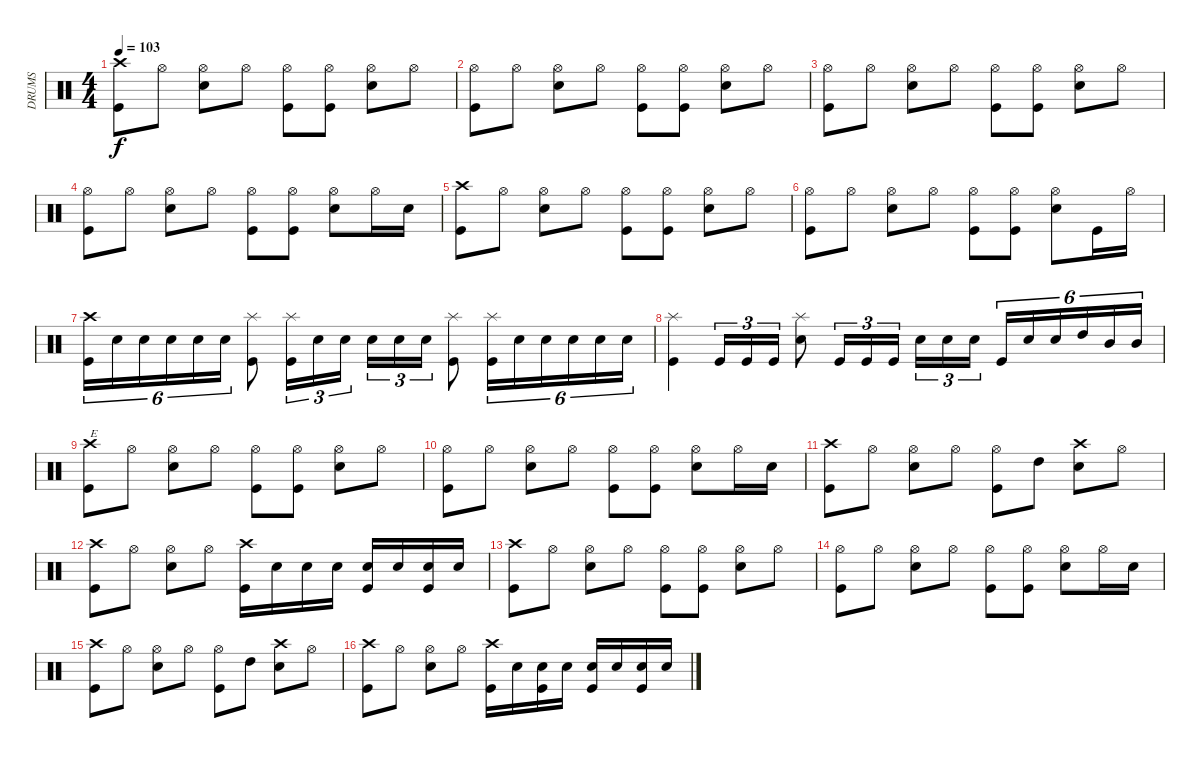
\track ("DRUMS" "DRUMS") {instrument percussion}
\staff {score}
\articulation defaults
\ts (4 4)
\tempo 103
\clef neutral
\ks c
("Crash high (hit)" "Kick (hit)").8{dy f} "Hi-Hat (open)".8 ("Hi-Hat (open)" "Electric Snare (hit)").8 "Hi-Hat (open)".8 ("Hi-Hat (open)" "Kick (hit)").8 ("Hi-Hat (open)" "Kick (hit)").8 ("Hi-Hat (open)" "Electric Snare (hit)").8 "Hi-Hat (open)".8 |
("Hi-Hat (open)" "Kick (hit)").8 "Hi-Hat (open)".8 ("Hi-Hat (open)" "Electric Snare (hit)").8 "Hi-Hat (open)".8 ("Hi-Hat (open)" "Kick (hit)").8 ("Hi-Hat (open)" "Kick (hit)").8 ("Hi-Hat (open)" "Electric Snare (hit)").8 "Hi-Hat (open)".8 |
("Hi-Hat (open)" "Kick (hit)").8 "Hi-Hat (open)".8 ("Hi-Hat (open)" "Electric Snare (hit)").8 "Hi-Hat (open)".8 ("Hi-Hat (open)" "Kick (hit)").8 ("Hi-Hat (open)" "Kick (hit)").8 ("Hi-Hat (open)" "Electric Snare (hit)").8 "Hi-Hat (open)".8 |
("Hi-Hat (open)" "Kick (hit)").8 "Hi-Hat (open)".8 ("Hi-Hat (open)" "Electric Snare (hit)").8 "Hi-Hat (open)".8 ("Hi-Hat (open)" "Kick (hit)").8 ("Hi-Hat (open)" "Kick (hit)").8 ("Hi-Hat (open)" "Electric Snare (hit)").8 "Hi-Hat (open)".16 "Electric Snare (hit)".16 |
("Crash high (hit)" "Kick (hit)").8 "Hi-Hat (open)".8 ("Hi-Hat (open)" "Electric Snare (hit)").8 "Hi-Hat (open)".8 ("Hi-Hat (open)" "Kick (hit)").8 ("Hi-Hat (open)" "Kick (hit)").8 ("Hi-Hat (open)" "Electric Snare (hit)").8 "Hi-Hat (open)".8 |
("Hi-Hat (open)" "Kick (hit)").8 "Hi-Hat (open)".8 ("Hi-Hat (open)" "Electric Snare (hit)").8 "Hi-Hat (open)".8 ("Hi-Hat (open)" "Kick (hit)").8 ("Hi-Hat (open)" "Kick (hit)").8 ("Hi-Hat (open)" "Electric Snare (hit)").8 "Kick (hit)".16 "Hi-Hat (open)".16 |
("Crash high (hit)" "Kick (hit)").16{tu (6 4)} "Electric Snare (hit)".16{tu (6 4)} "Electric Snare (hit)".16{tu (6 4)} "Electric Snare (hit)".16{tu (6 4)} "Electric Snare (hit)".16{tu (6 4)} "Electric Snare (hit)".16{tu (6 4)} ("Splash (hit)" "Kick (hit)").8 ("Splash (hit)" "Kick (hit)").16{tu (3 2)} "Electric Snare (hit)".16{tu (3 2)} "Electric Snare (hit)".16{tu (3 2)} "Electric Snare (hit)".16{tu (3 2)} "Electric Snare (hit)".16{tu (3 2)} "Electric Snare (hit)".16{tu (3 2)} ("Splash (hit)" "Kick (hit)").8 ("Splash (hit)" "Kick (hit)").16{tu (6 4)} "Electric Snare (hit)".16{tu (6 4)} "Electric Snare (hit)".16{tu (6 4)} "Electric Snare (hit)".16{tu (6 4)} "Electric Snare (hit)".16{tu (6 4)} "Electric Snare (hit)".16{tu (6 4)} |
("Splash (hit)" "Kick (hit)").4 "Kick (hit)".16{tu (3 2)} "Kick (hit)".16{tu (3 2)} "Kick (hit)".16{tu (3 2)} ("Splash (hit)" "Electric Snare (hit)").8 "Kick (hit)".16{tu (3 2)} "Kick (hit)".16{tu (3 2)} "Kick (hit)".16{tu (3 2)} "Electric Snare (hit)".16{tu (3 2)} "Electric Snare (hit)".16{tu (3 2)} "Electric Snare (hit)".16{tu (3 2)} "Kick (hit)".16{tu (6 4)} "Electric Snare (hit)".16{tu (6 4)} "Electric Snare (hit)".16{tu (6 4)} "High Tom (hit)".16{tu (6 4)} "Mid Tom (hit)".16{tu (6 4)} "Mid Tom (hit)".16{tu (6 4)} |
("Crash high (hit)" "Kick (hit)").8{txt "E"} "Hi-Hat (open)".8 ("Hi-Hat (open)" "Electric Snare (hit)").8 "Hi-Hat (open)".8 ("Hi-Hat (open)" "Kick (hit)").8 ("Hi-Hat (open)" "Kick (hit)").8 ("Hi-Hat (open)" "Electric Snare (hit)").8 "Hi-Hat (open)".8 |
("Hi-Hat (open)" "Kick (hit)").8 "Hi-Hat (open)".8 ("Hi-Hat (open)" "Electric Snare (hit)").8 "Hi-Hat (open)".8 ("Hi-Hat (open)" "Kick (hit)").8 ("Hi-Hat (open)" "Kick (hit)").8 ("Hi-Hat (open)" "Electric Snare (hit)").8 "Hi-Hat (open)".16 "Electric Snare (hit)".16 |
("Crash high (hit)" "Kick (hit)").8 "Hi-Hat (open)".8 ("Hi-Hat (open)" "Electric Snare (hit)").8 "Hi-Hat (open)".8 ("Hi-Hat (open)" "Kick (hit)").8 "High Tom (hit)".8 ("Crash high (hit)" "Electric Snare (hit)").8 "Hi-Hat (open)".8 |
("Crash high (hit)" "Kick (hit)").8 "Hi-Hat (open)".8 ("Hi-Hat (open)" "Electric Snare (hit)").8 "Hi-Hat (open)".8 ("Crash high (hit)" "Kick (hit)").16 "Electric Snare (hit)".16 "Electric Snare (hit)".16 "Electric Snare (hit)".16 ("Electric Snare (hit)" "Kick (hit)").16 "Electric Snare (hit)".16 ("Electric Snare (hit)" "Kick (hit)").16 "Electric Snare (hit)".16 |
("Crash high (hit)" "Kick (hit)").8 "Hi-Hat (open)".8 ("Hi-Hat (open)" "Electric Snare (hit)").8 "Hi-Hat (open)".8 ("Hi-Hat (open)" "Kick (hit)").8 ("Hi-Hat (open)" "Kick (hit)").8 ("Hi-Hat (open)" "Electric Snare (hit)").8 "Hi-Hat (open)".8 |
("Hi-Hat (open)" "Kick (hit)").8 "Hi-Hat (open)".8 ("Hi-Hat (open)" "Electric Snare (hit)").8 "Hi-Hat (open)".8 ("Hi-Hat (open)" "Kick (hit)").8 ("Hi-Hat (open)" "Kick (hit)").8 ("Hi-Hat (open)" "Electric Snare (hit)").8 "Hi-Hat (open)".16 "Electric Snare (hit)".16 |
("Crash high (hit)" "Kick (hit)").8 "Hi-Hat (open)".8 ("Hi-Hat (open)" "Electric Snare (hit)").8 "Hi-Hat (open)".8 ("Hi-Hat (open)" "Kick (hit)").8 "High Tom (hit)".8 ("Crash high (hit)" "Electric Snare (hit)").8 "Hi-Hat (open)".8 |
("Crash high (hit)" "Kick (hit)").8 "Hi-Hat (open)".8 ("Hi-Hat (open)" "Electric Snare (hit)").8 "Hi-Hat (open)".8 ("Crash high (hit)" "Kick (hit)").16 "Electric Snare (hit)".16 ("Electric Snare (hit)" "Kick (hit)").16 "Electric Snare (hit)".16 ("Electric Snare (hit)" "Kick (hit)").16 "Electric Snare (hit)".16 ("Electric Snare (hit)" "Kick (hit)").16 "Electric Snare (hit)".16
